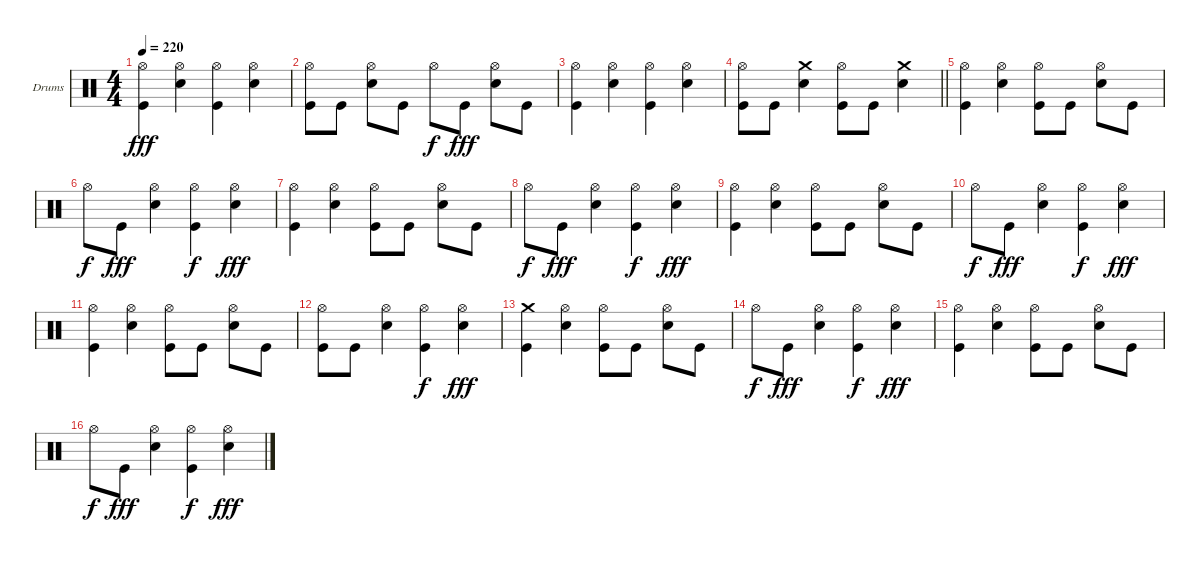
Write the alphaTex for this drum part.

\bracketExtendMode groupsimilarinstruments
\firstSystemTrackNameOrientation horizontal
\otherSystemsTrackNameOrientation horizontal
\track ("Stefan Schwarzmann" "Drums") {instrument percussion}
\staff {score}
\articulation defaults
\ts (4 4)
\tempo 220
\clef neutral
\ks c
("Kick (hit)" "Hi-Hat (open)").4{dy fff} ("Snare (hit) 2" "Hi-Hat (open)").4 ("Kick (hit)" "Hi-Hat (open)").4 ("Snare (hit) 2" "Hi-Hat (open)").4 |
("Kick (hit)" "Hi-Hat (open)").8 "Kick (hit)".8 ("Snare (hit) 2" "Hi-Hat (open)").8 "Kick (hit)".8 "Hi-Hat (open)".8{dy f} "Kick (hit)".8{dy fff} ("Snare (hit) 2" "Hi-Hat (open)").8 "Kick (hit)".8 |
("Kick (hit)" "Hi-Hat (open)").4 ("Snare (hit) 2" "Hi-Hat (open)").4 ("Kick (hit)" "Hi-Hat (open)").4 ("Snare (hit) 2" "Hi-Hat (open)").4 |
\barLineRight lightlight
("Kick (hit)" "Hi-Hat (open)").8 "Kick (hit)".8 ("Snare (hit) 2" "Crash medium (hit)").4 ("Kick (hit)" "Hi-Hat (open)").8 "Kick (hit)".8 ("Snare (hit) 2" "Crash medium (hit)").4 |
("Kick (hit)" "Hi-Hat (open)").4 ("Snare (hit) 2" "Hi-Hat (open)").4 ("Kick (hit)" "Hi-Hat (open)").8 "Kick (hit)".8 ("Snare (hit) 2" "Hi-Hat (open)").8 "Kick (hit)".8 |
"Hi-Hat (open)".8{dy f} "Kick (hit)".8{dy fff} ("Snare (hit) 2" "Hi-Hat (open)").4 ("Kick (hit)" "Hi-Hat (open)").4{dy f} ("Snare (hit) 2" "Hi-Hat (open)").4{dy fff} |
("Kick (hit)" "Hi-Hat (open)").4 ("Snare (hit) 2" "Hi-Hat (open)").4 ("Kick (hit)" "Hi-Hat (open)").8 "Kick (hit)".8 ("Snare (hit) 2" "Hi-Hat (open)").8 "Kick (hit)".8 |
"Hi-Hat (open)".8{dy f} "Kick (hit)".8{dy fff} ("Snare (hit) 2" "Hi-Hat (open)").4 ("Kick (hit)" "Hi-Hat (open)").4{dy f} ("Snare (hit) 2" "Hi-Hat (open)").4{dy fff} |
("Kick (hit)" "Hi-Hat (open)").4 ("Snare (hit) 2" "Hi-Hat (open)").4 ("Kick (hit)" "Hi-Hat (open)").8 "Kick (hit)".8 ("Snare (hit) 2" "Hi-Hat (open)").8 "Kick (hit)".8 |
"Hi-Hat (open)".8{dy f} "Kick (hit)".8{dy fff} ("Snare (hit) 2" "Hi-Hat (open)").4 ("Kick (hit)" "Hi-Hat (open)").4{dy f} ("Snare (hit) 2" "Hi-Hat (open)").4{dy fff} |
("Kick (hit)" "Hi-Hat (open)").4 ("Snare (hit) 2" "Hi-Hat (open)").4 ("Kick (hit)" "Hi-Hat (open)").8 "Kick (hit)".8 ("Snare (hit) 2" "Hi-Hat (open)").8 "Kick (hit)".8 |
("Kick (hit)" "Hi-Hat (open)").8 "Kick (hit)".8 ("Snare (hit) 2" "Hi-Hat (open)").4 ("Kick (hit)" "Hi-Hat (open)").4{dy f} ("Snare (hit) 2" "Hi-Hat (open)").4{dy fff} |
("Kick (hit)" "Crash medium (hit)").4 ("Snare (hit) 2" "Hi-Hat (open)").4 ("Kick (hit)" "Hi-Hat (open)").8 "Kick (hit)".8 ("Snare (hit) 2" "Hi-Hat (open)").8 "Kick (hit)".8 |
"Hi-Hat (open)".8{dy f} "Kick (hit)".8{dy fff} ("Snare (hit) 2" "Hi-Hat (open)").4 ("Kick (hit)" "Hi-Hat (open)").4{dy f} ("Snare (hit) 2" "Hi-Hat (open)").4{dy fff} |
("Kick (hit)" "Hi-Hat (open)").4 ("Snare (hit) 2" "Hi-Hat (open)").4 ("Kick (hit)" "Hi-Hat (open)").8 "Kick (hit)".8 ("Snare (hit) 2" "Hi-Hat (open)").8 "Kick (hit)".8 |
"Hi-Hat (open)".8{dy f} "Kick (hit)".8{dy fff} ("Snare (hit) 2" "Hi-Hat (open)").4 ("Kick (hit)" "Hi-Hat (open)").4{dy f} ("Snare (hit) 2" "Hi-Hat (open)").4{dy fff}
